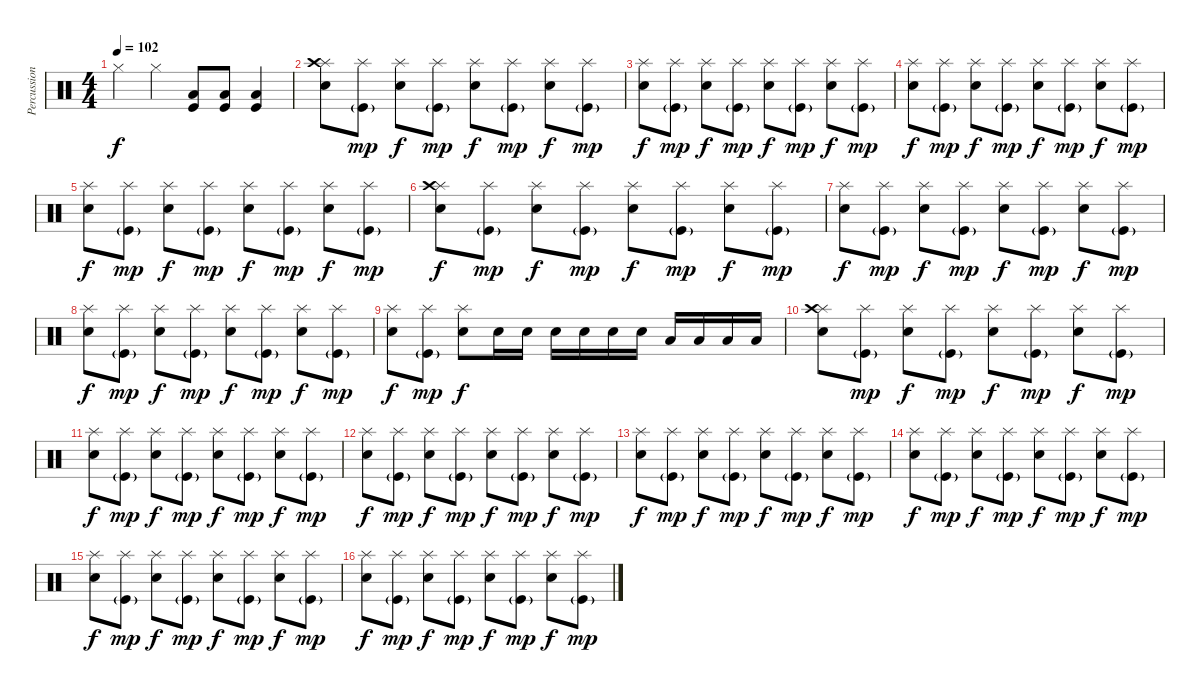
\track ("Percussion" "Percussion") {instrument percussion}
\staff {score}
\articulation defaults
\ts (4 4)
\tempo 102
\clef neutral
\ks c "Hi-Hat (closed)".4{dy f} "Hi-Hat (closed)".4
("Low Tom (hit)" "Kick (hit)").8 ("Low Tom (hit)" "Kick (hit)").8 ("Low Tom (hit)" "Kick (hit)").4 |
("Splash (hit)" "Snare (hit) 2" "Crash high (hit)").8 ("Splash (hit)" "Kick (hit)"{g}).8{dy mp} ("Splash (hit)" "Snare (hit) 2").8{dy f} ("Splash (hit)" "Kick (hit)"{g}).8{dy mp} ("Splash (hit)" "Snare (hit) 2").8{dy f} ("Splash (hit)" "Kick (hit)"{g}).8{dy mp} ("Splash (hit)" "Snare (hit) 2").8{dy f} ("Splash (hit)" "Kick (hit)"{g}).8{dy mp} |
("Splash (hit)" "Snare (hit) 2").8{dy f} ("Splash (hit)" "Kick (hit)"{g}).8{dy mp} ("Splash (hit)" "Snare (hit) 2").8{dy f} ("Splash (hit)" "Kick (hit)"{g}).8{dy mp} ("Splash (hit)" "Snare (hit) 2").8{dy f} ("Splash (hit)" "Kick (hit)"{g}).8{dy mp} ("Splash (hit)" "Snare (hit) 2").8{dy f} ("Splash (hit)" "Kick (hit)"{g}).8{dy mp} |
("Splash (hit)" "Snare (hit) 2").8{dy f} ("Splash (hit)" "Kick (hit)"{g}).8{dy mp} ("Splash (hit)" "Snare (hit) 2").8{dy f} ("Splash (hit)" "Kick (hit)"{g}).8{dy mp} ("Splash (hit)" "Snare (hit) 2").8{dy f} ("Splash (hit)" "Kick (hit)"{g}).8{dy mp} ("Splash (hit)" "Snare (hit) 2").8{dy f} ("Splash (hit)" "Kick (hit)"{g}).8{dy mp} |
("Splash (hit)" "Snare (hit) 2").8{dy f} ("Splash (hit)" "Kick (hit)"{g}).8{dy mp} ("Splash (hit)" "Snare (hit) 2").8{dy f} ("Splash (hit)" "Kick (hit)"{g}).8{dy mp} ("Splash (hit)" "Snare (hit) 2").8{dy f} ("Splash (hit)" "Kick (hit)"{g}).8{dy mp} ("Splash (hit)" "Snare (hit) 2").8{dy f} ("Splash (hit)" "Kick (hit)"{g}).8{dy mp} |
("Splash (hit)" "Snare (hit) 2" "Crash high (hit)").8{dy f} ("Splash (hit)" "Kick (hit)"{g}).8{dy mp} ("Splash (hit)" "Snare (hit) 2").8{dy f} ("Splash (hit)" "Kick (hit)"{g}).8{dy mp} ("Splash (hit)" "Snare (hit) 2").8{dy f} ("Splash (hit)" "Kick (hit)"{g}).8{dy mp} ("Splash (hit)" "Snare (hit) 2").8{dy f} ("Splash (hit)" "Kick (hit)"{g}).8{dy mp} |
("Splash (hit)" "Snare (hit) 2").8{dy f} ("Splash (hit)" "Kick (hit)"{g}).8{dy mp} ("Splash (hit)" "Snare (hit) 2").8{dy f} ("Splash (hit)" "Kick (hit)"{g}).8{dy mp} ("Splash (hit)" "Snare (hit) 2").8{dy f} ("Splash (hit)" "Kick (hit)"{g}).8{dy mp} ("Splash (hit)" "Snare (hit) 2").8{dy f} ("Splash (hit)" "Kick (hit)"{g}).8{dy mp} |
("Splash (hit)" "Snare (hit) 2").8{dy f} ("Splash (hit)" "Kick (hit)"{g}).8{dy mp} ("Splash (hit)" "Snare (hit) 2").8{dy f} ("Splash (hit)" "Kick (hit)"{g}).8{dy mp} ("Splash (hit)" "Snare (hit) 2").8{dy f} ("Splash (hit)" "Kick (hit)"{g}).8{dy mp} ("Splash (hit)" "Snare (hit) 2").8{dy f} ("Splash (hit)" "Kick (hit)"{g}).8{dy mp} |
("Splash (hit)" "Snare (hit) 2").8{dy f} ("Splash (hit)" "Kick (hit)"{g}).8{dy mp} ("Splash (hit)" "Snare (hit) 2").8{dy f} "Snare (hit) 2".16 "Snare (hit) 2".16 "Snare (hit) 2".16 "Snare (hit) 2".16 "Snare (hit) 2".16 "Snare (hit) 2".16 "Low Tom (hit)".16 "Low Tom (hit)".16 "Low Tom (hit)".16 "Low Tom (hit)".16 |
("Splash (hit)" "Snare (hit) 2" "Crash high (hit)").8 ("Splash (hit)" "Kick (hit)"{g}).8{dy mp} ("Splash (hit)" "Snare (hit) 2").8{dy f} ("Splash (hit)" "Kick (hit)"{g}).8{dy mp} ("Splash (hit)" "Snare (hit) 2").8{dy f} ("Splash (hit)" "Kick (hit)"{g}).8{dy mp} ("Splash (hit)" "Snare (hit) 2").8{dy f} ("Splash (hit)" "Kick (hit)"{g}).8{dy mp} |
("Splash (hit)" "Snare (hit) 2").8{dy f} ("Splash (hit)" "Kick (hit)"{g}).8{dy mp} ("Splash (hit)" "Snare (hit) 2").8{dy f} ("Splash (hit)" "Kick (hit)"{g}).8{dy mp} ("Splash (hit)" "Snare (hit) 2").8{dy f} ("Splash (hit)" "Kick (hit)"{g}).8{dy mp} ("Splash (hit)" "Snare (hit) 2").8{dy f} ("Splash (hit)" "Kick (hit)"{g}).8{dy mp} |
("Splash (hit)" "Snare (hit) 2").8{dy f} ("Splash (hit)" "Kick (hit)"{g}).8{dy mp} ("Splash (hit)" "Snare (hit) 2").8{dy f} ("Splash (hit)" "Kick (hit)"{g}).8{dy mp} ("Splash (hit)" "Snare (hit) 2").8{dy f} ("Splash (hit)" "Kick (hit)"{g}).8{dy mp} ("Splash (hit)" "Snare (hit) 2").8{dy f} ("Splash (hit)" "Kick (hit)"{g}).8{dy mp} |
("Splash (hit)" "Snare (hit) 2").8{dy f} ("Splash (hit)" "Kick (hit)"{g}).8{dy mp} ("Splash (hit)" "Snare (hit) 2").8{dy f} ("Splash (hit)" "Kick (hit)"{g}).8{dy mp} ("Splash (hit)" "Snare (hit) 2").8{dy f} ("Splash (hit)" "Kick (hit)"{g}).8{dy mp} ("Splash (hit)" "Snare (hit) 2").8{dy f} ("Splash (hit)" "Kick (hit)"{g}).8{dy mp} |
("Splash (hit)" "Snare (hit) 2").8{dy f} ("Splash (hit)" "Kick (hit)"{g}).8{dy mp} ("Splash (hit)" "Snare (hit) 2").8{dy f} ("Splash (hit)" "Kick (hit)"{g}).8{dy mp} ("Splash (hit)" "Snare (hit) 2").8{dy f} ("Splash (hit)" "Kick (hit)"{g}).8{dy mp} ("Splash (hit)" "Snare (hit) 2").8{dy f} ("Splash (hit)" "Kick (hit)"{g}).8{dy mp} |
("Splash (hit)" "Snare (hit) 2").8{dy f} ("Splash (hit)" "Kick (hit)"{g}).8{dy mp} ("Splash (hit)" "Snare (hit) 2").8{dy f} ("Splash (hit)" "Kick (hit)"{g}).8{dy mp} ("Splash (hit)" "Snare (hit) 2").8{dy f} ("Splash (hit)" "Kick (hit)"{g}).8{dy mp} ("Splash (hit)" "Snare (hit) 2").8{dy f} ("Splash (hit)" "Kick (hit)"{g}).8{dy mp} |
("Splash (hit)" "Snare (hit) 2").8{dy f} ("Splash (hit)" "Kick (hit)"{g}).8{dy mp} ("Splash (hit)" "Snare (hit) 2").8{dy f} ("Splash (hit)" "Kick (hit)"{g}).8{dy mp} ("Splash (hit)" "Snare (hit) 2").8{dy f} ("Splash (hit)" "Kick (hit)"{g}).8{dy mp} ("Splash (hit)" "Snare (hit) 2").8{dy f} ("Splash (hit)" "Kick (hit)"{g}).8{dy mp}
